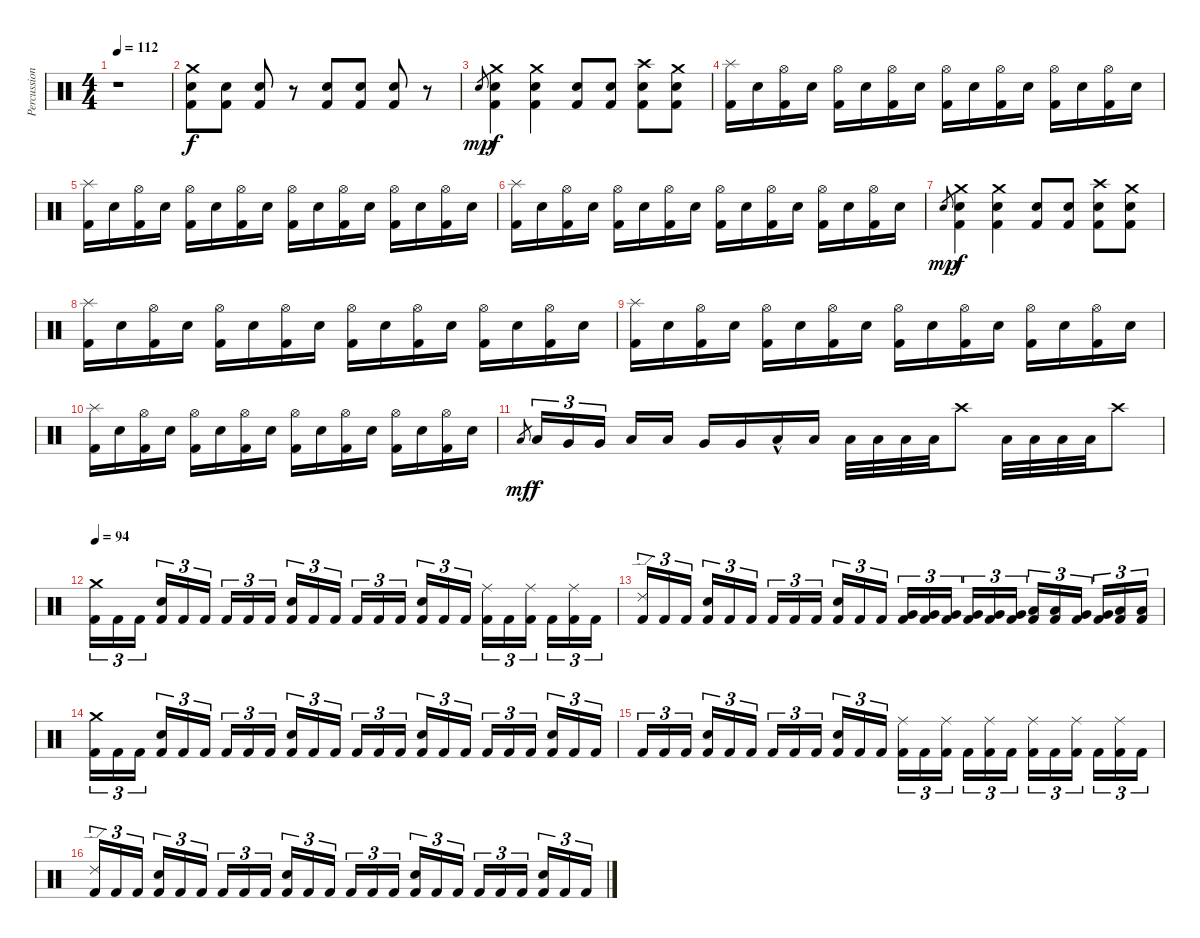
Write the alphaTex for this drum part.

\track ("Percussioni" "Percussion") {instrument percussion}
\staff {score}
\articulation defaults
\ts (4 4)
\tempo 112
\clef neutral
\ks c
r.1{dy f} |
("Crash medium (hit)" "Snare (hit) 2" "Kick (hit) 2").8 ("Snare (hit) 2" "Kick (hit) 2").8 ("Snare (hit) 2" "Kick (hit) 2").8 r.8 ("Snare (hit) 2" "Kick (hit) 2").8 ("Snare (hit) 2" "Kick (hit) 2").8 ("Snare (hit) 2" "Kick (hit) 2").8 r.8 |
"Snare (hit) 2".8{gr dy mp} ("Crash medium (hit)" "Snare (hit) 2" "Kick (hit) 2").4{dy f} ("Crash medium (hit)" "Snare (hit) 2" "Kick (hit) 2").4 ("Snare (hit) 2" "Kick (hit) 2").8 ("Snare (hit) 2" "Kick (hit) 2").8 ("Crash high (hit)" "Snare (hit) 2" "Kick (hit) 2").8 ("Crash medium (hit)" "Snare (hit) 2" "Kick (hit) 2").8 |
("Splash (hit)" "Kick (hit) 2").16 "Snare (hit) 2".16 ("Hi-Hat (open)" "Kick (hit) 2").16 "Snare (hit) 2".16 ("Hi-Hat (open)" "Kick (hit) 2").16 "Snare (hit) 2".16 ("Hi-Hat (open)" "Kick (hit) 2").16 "Snare (hit) 2".16 ("Hi-Hat (open)" "Kick (hit) 2").16 "Snare (hit) 2".16 ("Hi-Hat (open)" "Kick (hit) 2").16 "Snare (hit) 2".16 ("Hi-Hat (open)" "Kick (hit) 2").16 "Snare (hit) 2".16 ("Hi-Hat (open)" "Kick (hit) 2").16 "Snare (hit) 2".16 |
("Splash (hit)" "Kick (hit) 2").16 "Snare (hit) 2".16 ("Hi-Hat (open)" "Kick (hit) 2").16 "Snare (hit) 2".16 ("Hi-Hat (open)" "Kick (hit) 2").16 "Snare (hit) 2".16 ("Hi-Hat (open)" "Kick (hit) 2").16 "Snare (hit) 2".16 ("Hi-Hat (open)" "Kick (hit) 2").16 "Snare (hit) 2".16 ("Hi-Hat (open)" "Kick (hit) 2").16 "Snare (hit) 2".16 ("Hi-Hat (open)" "Kick (hit) 2").16 "Snare (hit) 2".16 ("Hi-Hat (open)" "Kick (hit) 2").16 "Snare (hit) 2".16 |
("Splash (hit)" "Kick (hit) 2").16 "Snare (hit) 2".16 ("Hi-Hat (open)" "Kick (hit) 2").16 "Snare (hit) 2".16 ("Hi-Hat (open)" "Kick (hit) 2").16 "Snare (hit) 2".16 ("Hi-Hat (open)" "Kick (hit) 2").16 "Snare (hit) 2".16 ("Hi-Hat (open)" "Kick (hit) 2").16 "Snare (hit) 2".16 ("Hi-Hat (open)" "Kick (hit) 2").16 "Snare (hit) 2".16 ("Hi-Hat (open)" "Kick (hit) 2").16 "Snare (hit) 2".16 ("Hi-Hat (open)" "Kick (hit) 2").16 "Snare (hit) 2".16 |
"Snare (hit) 2".8{gr dy mp} ("Crash medium (hit)" "Snare (hit) 2" "Kick (hit) 2").4{dy f} ("Crash medium (hit)" "Snare (hit) 2" "Kick (hit) 2").4 ("Snare (hit) 2" "Kick (hit) 2").8 ("Snare (hit) 2" "Kick (hit) 2").8 ("Crash high (hit)" "Snare (hit) 2" "Kick (hit) 2").8 ("Crash medium (hit)" "Snare (hit) 2" "Kick (hit) 2").8 |
("Splash (hit)" "Kick (hit) 2").16 "Snare (hit) 2".16 ("Hi-Hat (open)" "Kick (hit) 2").16 "Snare (hit) 2".16 ("Hi-Hat (open)" "Kick (hit) 2").16 "Snare (hit) 2".16 ("Hi-Hat (open)" "Kick (hit) 2").16 "Snare (hit) 2".16 ("Hi-Hat (open)" "Kick (hit) 2").16 "Snare (hit) 2".16 ("Hi-Hat (open)" "Kick (hit) 2").16 "Snare (hit) 2".16 ("Hi-Hat (open)" "Kick (hit) 2").16 "Snare (hit) 2".16 ("Hi-Hat (open)" "Kick (hit) 2").16 "Snare (hit) 2".16 |
("Splash (hit)" "Kick (hit) 2").16 "Snare (hit) 2".16 ("Hi-Hat (open)" "Kick (hit) 2").16 "Snare (hit) 2".16 ("Hi-Hat (open)" "Kick (hit) 2").16 "Snare (hit) 2".16 ("Hi-Hat (open)" "Kick (hit) 2").16 "Snare (hit) 2".16 ("Hi-Hat (open)" "Kick (hit) 2").16 "Snare (hit) 2".16 ("Hi-Hat (open)" "Kick (hit) 2").16 "Snare (hit) 2".16 ("Hi-Hat (open)" "Kick (hit) 2").16 "Snare (hit) 2".16 ("Hi-Hat (open)" "Kick (hit) 2").16 "Snare (hit) 2".16 |
("Splash (hit)" "Kick (hit) 2").16 "Snare (hit) 2".16 ("Hi-Hat (open)" "Kick (hit) 2").16 "Snare (hit) 2".16 ("Hi-Hat (open)" "Kick (hit) 2").16 "Snare (hit) 2".16 ("Hi-Hat (open)" "Kick (hit) 2").16 "Snare (hit) 2".16 ("Hi-Hat (open)" "Kick (hit) 2").16 "Snare (hit) 2".16 ("Hi-Hat (open)" "Kick (hit) 2").16 "Snare (hit) 2".16 ("Hi-Hat (open)" "Kick (hit) 2").16 "Snare (hit) 2".16 ("Hi-Hat (open)" "Kick (hit) 2").16 "Snare (hit) 2".16 |
"Low Floor Tom (hit)".8{gr dy mf} "Low Floor Tom (hit)".16{tu (3 2) dy f} "Very Low Tom (hit)".16{tu (3 2)} "Very Low Tom (hit)".16{tu (3 2)} "Low Tom (hit)".16 "Low Tom (hit)".16 "Very Low Tom (hit)".16 "Very Low Tom (hit)".16 "Low Floor Tom (hit)"{hac}.16 "Low Floor Tom (hit)".16 "Low Floor Tom (hit)".32 "Low Floor Tom (hit)".32 "Low Floor Tom (hit)".32 "Low Floor Tom (hit)".32 "Crash high (hit)".8 "Low Floor Tom (hit)".32 "Low Floor Tom (hit)".32 "Low Floor Tom (hit)".32 "Low Floor Tom (hit)".32 "Crash high (hit)".8 |
\tempo 94
("Crash medium (hit)" "Kick (hit) 2").16{tu (3 2)} "Kick (hit) 2".16{tu (3 2)} "Kick (hit) 2".16{tu (3 2)} ("Snare (hit) 2" "Kick (hit) 2").16{tu (3 2)} "Kick (hit) 2".16{tu (3 2)} "Kick (hit) 2".16{tu (3 2)} "Kick (hit) 2".16{tu (3 2)} "Kick (hit) 2".16{tu (3 2)} "Kick (hit) 2".16{tu (3 2)} ("Snare (hit) 2" "Kick (hit) 2").16{tu (3 2)} "Kick (hit) 2".16{tu (3 2)} "Kick (hit) 2".16{tu (3 2)} "Kick (hit) 2".16{tu (3 2)} "Kick (hit) 2".16{tu (3 2)} "Kick (hit) 2".16{tu (3 2)} ("Snare (hit) 2" "Kick (hit) 2").16{tu (3 2)} "Kick (hit) 2".16{tu (3 2)} "Kick (hit) 2".16{tu (3 2)} ("Ride (middle)" "Kick (hit) 2").16{tu (3 2)} "Kick (hit) 2".16{tu (3 2)} ("Ride (middle)" "Kick (hit) 2").16{tu (3 2)} "Kick (hit) 2".16{tu (3 2)} ("Ride (middle)" "Kick (hit) 2").16{tu (3 2)} "Kick (hit) 2".16{tu (3 2)} |
("Ride (edge) 2" "Kick (hit) 2").16{tu (3 2)} "Kick (hit) 2".16{tu (3 2)} "Kick (hit) 2".16{tu (3 2)} ("Snare (hit) 2" "Kick (hit) 2").16{tu (3 2)} "Kick (hit) 2".16{tu (3 2)} "Kick (hit) 2".16{tu (3 2)} "Kick (hit) 2".16{tu (3 2)} "Kick (hit) 2".16{tu (3 2)} "Kick (hit) 2".16{tu (3 2)} ("Snare (hit) 2" "Kick (hit) 2").16{tu (3 2)} "Kick (hit) 2".16{tu (3 2)} "Kick (hit) 2".16{tu (3 2)} ("Very Low Tom (hit)" "Kick (hit) 2").16{tu (3 2)} ("Very Low Tom (hit)" "Kick (hit) 2").16{tu (3 2)} ("Very Low Tom (hit)" "Kick (hit) 2").16{tu (3 2)} ("Very Low Tom (hit)" "Kick (hit) 2").16{tu (3 2)} ("Very Low Tom (hit)" "Kick (hit) 2").16{tu (3 2)} ("Very Low Tom (hit)" "Kick (hit) 2").16{tu (3 2)} ("Low Tom (hit)" "Kick (hit) 2").16{tu (3 2)} ("Low Tom (hit)" "Kick (hit) 2").16{tu (3 2)} ("Very Low Tom (hit)" "Kick (hit) 2").16{tu (3 2)} ("Very Low Tom (hit)" "Kick (hit) 2").16{tu (3 2)} ("Low Floor Tom (hit)" "Kick (hit) 2").16{tu (3 2)} ("Low Floor Tom (hit)" "Kick (hit) 2").16{tu (3 2)} |
("Crash medium (hit)" "Kick (hit) 2").16{tu (3 2)} "Kick (hit) 2".16{tu (3 2)} "Kick (hit) 2".16{tu (3 2)} ("Snare (hit) 2" "Kick (hit) 2").16{tu (3 2)} "Kick (hit) 2".16{tu (3 2)} "Kick (hit) 2".16{tu (3 2)} "Kick (hit) 2".16{tu (3 2)} "Kick (hit) 2".16{tu (3 2)} "Kick (hit) 2".16{tu (3 2)} ("Snare (hit) 2" "Kick (hit) 2").16{tu (3 2)} "Kick (hit) 2".16{tu (3 2)} "Kick (hit) 2".16{tu (3 2)} "Kick (hit) 2".16{tu (3 2)} "Kick (hit) 2".16{tu (3 2)} "Kick (hit) 2".16{tu (3 2)} ("Snare (hit) 2" "Kick (hit) 2").16{tu (3 2)} "Kick (hit) 2".16{tu (3 2)} "Kick (hit) 2".16{tu (3 2)} "Kick (hit) 2".16{tu (3 2)} "Kick (hit) 2".16{tu (3 2)} "Kick (hit) 2".16{tu (3 2)} ("Snare (hit) 2" "Kick (hit) 2").16{tu (3 2)} "Kick (hit) 2".16{tu (3 2)} "Kick (hit) 2".16{tu (3 2)} |
"Kick (hit) 2".16{tu (3 2)} "Kick (hit) 2".16{tu (3 2)} "Kick (hit) 2".16{tu (3 2)} ("Snare (hit) 2" "Kick (hit) 2").16{tu (3 2)} "Kick (hit) 2".16{tu (3 2)} "Kick (hit) 2".16{tu (3 2)} "Kick (hit) 2".16{tu (3 2)} "Kick (hit) 2".16{tu (3 2)} "Kick (hit) 2".16{tu (3 2)} ("Snare (hit) 2" "Kick (hit) 2").16{tu (3 2)} "Kick (hit) 2".16{tu (3 2)} "Kick (hit) 2".16{tu (3 2)} ("Ride (middle)" "Kick (hit) 2").16{tu (3 2)} "Kick (hit) 2".16{tu (3 2)} ("Ride (middle)" "Kick (hit) 2").16{tu (3 2)} "Kick (hit) 2".16{tu (3 2)} ("Ride (middle)" "Kick (hit) 2").16{tu (3 2)} "Kick (hit) 2".16{tu (3 2)} ("Ride (middle)" "Kick (hit) 2").16{tu (3 2)} "Kick (hit) 2".16{tu (3 2)} ("Ride (middle)" "Kick (hit) 2").16{tu (3 2)} "Kick (hit) 2".16{tu (3 2)} ("Ride (middle)" "Kick (hit) 2").16{tu (3 2)} "Kick (hit) 2".16{tu (3 2)} |
("Ride (edge) 2" "Kick (hit) 2").16{tu (3 2)} "Kick (hit) 2".16{tu (3 2)} "Kick (hit) 2".16{tu (3 2)} ("Snare (hit) 2" "Kick (hit) 2").16{tu (3 2)} "Kick (hit) 2".16{tu (3 2)} "Kick (hit) 2".16{tu (3 2)} "Kick (hit) 2".16{tu (3 2)} "Kick (hit) 2".16{tu (3 2)} "Kick (hit) 2".16{tu (3 2)} ("Snare (hit) 2" "Kick (hit) 2").16{tu (3 2)} "Kick (hit) 2".16{tu (3 2)} "Kick (hit) 2".16{tu (3 2)} "Kick (hit) 2".16{tu (3 2)} "Kick (hit) 2".16{tu (3 2)} "Kick (hit) 2".16{tu (3 2)} ("Snare (hit) 2" "Kick (hit) 2").16{tu (3 2)} "Kick (hit) 2".16{tu (3 2)} "Kick (hit) 2".16{tu (3 2)} "Kick (hit) 2".16{tu (3 2)} "Kick (hit) 2".16{tu (3 2)} "Kick (hit) 2".16{tu (3 2)} ("Snare (hit) 2" "Kick (hit) 2").16{tu (3 2)} "Kick (hit) 2".16{tu (3 2)} "Kick (hit) 2".16{tu (3 2)}
